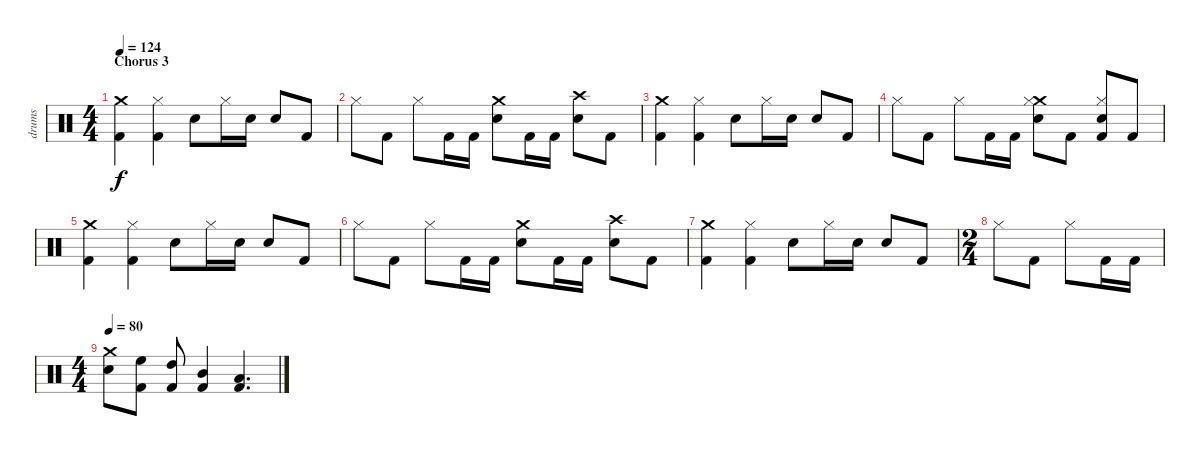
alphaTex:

\track ("drums" "drums") {instrument percussion}
\staff {score}
\articulation defaults
\ts (4 4)
\section ("" "Chorus 3")
\tempo 124
\clef neutral
\ks c
("Crash medium (hit)" "Kick (hit) 2").4{dy f} ("Hi-Hat (closed)" "Kick (hit) 2").4 "Snare (hit) 2".8 "Hi-Hat (closed)".16 "Snare (hit) 2".16 "Snare (hit) 2".8 "Kick (hit) 2".8 |
"Hi-Hat (closed)".8 "Kick (hit) 2".8 "Hi-Hat (closed)".8 "Kick (hit) 2".16 "Kick (hit) 2".16 ("Crash medium (hit)" "Snare (hit) 2").8 "Kick (hit) 2".16 "Kick (hit) 2".16 ("Crash high (hit)" "Snare (hit) 2").8 "Kick (hit) 2".8 |
("Crash medium (hit)" "Kick (hit) 2").4 ("Hi-Hat (closed)" "Kick (hit) 2").4 "Snare (hit) 2".8 "Hi-Hat (closed)".16 "Snare (hit) 2".16 "Snare (hit) 2".8 "Kick (hit) 2".8 |
"Hi-Hat (closed)".8 "Kick (hit) 2".8 "Hi-Hat (closed)".8 "Kick (hit) 2".16 "Kick (hit) 2".16 ("Crash medium (hit)" "Hi-Hat (closed)" "Snare (hit) 2").8 "Kick (hit) 2".8 ("Hi-Hat (closed)" "Snare (hit) 2" "Kick (hit) 2").8 "Kick (hit) 2".8 |
("Crash medium (hit)" "Kick (hit) 2").4 ("Hi-Hat (closed)" "Kick (hit) 2").4 "Snare (hit) 2".8 "Hi-Hat (closed)".16 "Snare (hit) 2".16 "Snare (hit) 2".8 "Kick (hit) 2".8 |
"Hi-Hat (closed)".8 "Kick (hit) 2".8 "Hi-Hat (closed)".8 "Kick (hit) 2".16 "Kick (hit) 2".16 ("Crash medium (hit)" "Snare (hit) 2").8 "Kick (hit) 2".16 "Kick (hit) 2".16 ("Crash high (hit)" "Snare (hit) 2").8 "Kick (hit) 2".8 |
("Crash medium (hit)" "Kick (hit) 2").4 ("Hi-Hat (closed)" "Kick (hit) 2").4 "Snare (hit) 2".8 "Hi-Hat (closed)".16 "Snare (hit) 2".16 "Snare (hit) 2".8 "Kick (hit) 2".8 |
\ts (2 4)
"Hi-Hat (closed)".8 "Kick (hit) 2".8 "Hi-Hat (closed)".8 "Kick (hit) 2".16 "Kick (hit) 2".16 |
\ts (4 4)
\tempo 80
("Crash medium (hit)" "Snare (hit) 2").8 ("High Floor Tom (hit)" "Kick (hit) 2").8 ("High Tom (hit)" "Kick (hit) 2").8 ("Mid Tom (hit)" "Kick (hit) 2").4 ("Low Tom (hit)" "Kick (hit) 2").4{d}
